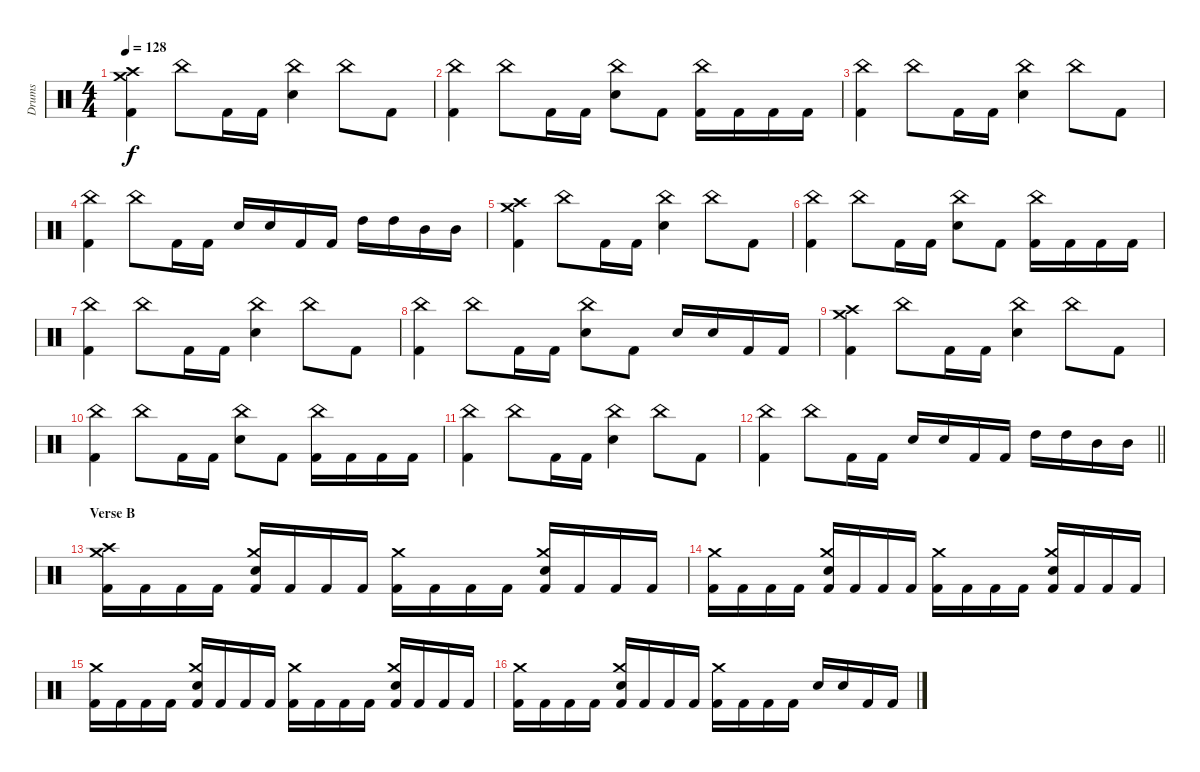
\track ("Drums" "Drums") {instrument percussion}
\staff {score}
\articulation defaults
\ts (4 4)
\tempo 128
\clef neutral
\ks c
("Kick (hit) 2" "Crash high (hit)" "Crash medium (hit)").4{dy f} "China (hit)".8 "Kick (hit) 2".16 "Kick (hit) 2".16 ("Snare (hit) 2" "China (hit)").4 "China (hit)".8 "Kick (hit) 2".8 |
("Kick (hit) 2" "China (hit)").4 "China (hit)".8 "Kick (hit) 2".16 "Kick (hit) 2".16 ("Snare (hit) 2" "China (hit)").8 "Kick (hit) 2".8 ("Kick (hit) 2" "China (hit)").16 "Kick (hit) 2".16 "Kick (hit) 2".16 "Kick (hit) 2".16 |
("Kick (hit) 2" "China (hit)").4 "China (hit)".8 "Kick (hit) 2".16 "Kick (hit) 2".16 ("Snare (hit) 2" "China (hit)").4 "China (hit)".8 "Kick (hit) 2".8 |
("Kick (hit) 2" "China (hit)").4 "China (hit)".8 "Kick (hit) 2".16 "Kick (hit) 2".16 "Snare (hit) 2".16 "Snare (hit) 2".16 "Kick (hit) 2".16 "Kick (hit) 2".16 "High Tom (hit)".16 "High Tom (hit)".16 "Mid Tom (hit)".16 "Mid Tom (hit)".16 |
("Kick (hit) 2" "Crash high (hit)" "Crash medium (hit)").4 "China (hit)".8 "Kick (hit) 2".16 "Kick (hit) 2".16 ("Snare (hit) 2" "China (hit)").4 "China (hit)".8 "Kick (hit) 2".8 |
("Kick (hit) 2" "China (hit)").4 "China (hit)".8 "Kick (hit) 2".16 "Kick (hit) 2".16 ("Snare (hit) 2" "China (hit)").8 "Kick (hit) 2".8 ("Kick (hit) 2" "China (hit)").16 "Kick (hit) 2".16 "Kick (hit) 2".16 "Kick (hit) 2".16 |
("Kick (hit) 2" "China (hit)").4 "China (hit)".8 "Kick (hit) 2".16 "Kick (hit) 2".16 ("Snare (hit) 2" "China (hit)").4 "China (hit)".8 "Kick (hit) 2".8 |
("Kick (hit) 2" "China (hit)").4 "China (hit)".8 "Kick (hit) 2".16 "Kick (hit) 2".16 ("Snare (hit) 2" "China (hit)").8 "Kick (hit) 2".8 "Snare (hit) 2".16 "Snare (hit) 2".16 "Kick (hit) 2".16 "Kick (hit) 2".16 |
("Kick (hit) 2" "Crash high (hit)" "Crash medium (hit)").4 "China (hit)".8 "Kick (hit) 2".16 "Kick (hit) 2".16 ("Snare (hit) 2" "China (hit)").4 "China (hit)".8 "Kick (hit) 2".8 |
("Kick (hit) 2" "China (hit)").4 "China (hit)".8 "Kick (hit) 2".16 "Kick (hit) 2".16 ("Snare (hit) 2" "China (hit)").8 "Kick (hit) 2".8 ("Kick (hit) 2" "China (hit)").16 "Kick (hit) 2".16 "Kick (hit) 2".16 "Kick (hit) 2".16 |
("Kick (hit) 2" "China (hit)").4 "China (hit)".8 "Kick (hit) 2".16 "Kick (hit) 2".16 ("Snare (hit) 2" "China (hit)").4 "China (hit)".8 "Kick (hit) 2".8 |
\barLineRight lightlight
("Kick (hit) 2" "China (hit)").4 "China (hit)".8 "Kick (hit) 2".16 "Kick (hit) 2".16 "Snare (hit) 2".16 "Snare (hit) 2".16 "Kick (hit) 2".16 "Kick (hit) 2".16 "High Tom (hit)".16 "High Tom (hit)".16 "Mid Tom (hit)".16 "Mid Tom (hit)".16 |
\section ("" "Verse B")
("Kick (hit) 2" "Crash high (hit)" "Crash medium (hit)").16 "Kick (hit) 2".16 "Kick (hit) 2".16 "Kick (hit) 2".16 ("Kick (hit) 2" "Snare (hit) 2" "Crash medium (hit)").16 "Kick (hit) 2".16 "Kick (hit) 2".16 "Kick (hit) 2".16 ("Kick (hit) 2" "Crash medium (hit)").16 "Kick (hit) 2".16 "Kick (hit) 2".16 "Kick (hit) 2".16 ("Kick (hit) 2" "Snare (hit) 2" "Crash medium (hit)").16 "Kick (hit) 2".16 "Kick (hit) 2".16 "Kick (hit) 2".16 |
("Kick (hit) 2" "Crash medium (hit)").16 "Kick (hit) 2".16 "Kick (hit) 2".16 "Kick (hit) 2".16 ("Kick (hit) 2" "Snare (hit) 2" "Crash medium (hit)").16 "Kick (hit) 2".16 "Kick (hit) 2".16 "Kick (hit) 2".16 ("Kick (hit) 2" "Crash medium (hit)").16 "Kick (hit) 2".16 "Kick (hit) 2".16 "Kick (hit) 2".16 ("Kick (hit) 2" "Snare (hit) 2" "Crash medium (hit)").16 "Kick (hit) 2".16 "Kick (hit) 2".16 "Kick (hit) 2".16 |
("Kick (hit) 2" "Crash medium (hit)").16 "Kick (hit) 2".16 "Kick (hit) 2".16 "Kick (hit) 2".16 ("Kick (hit) 2" "Snare (hit) 2" "Crash medium (hit)").16 "Kick (hit) 2".16 "Kick (hit) 2".16 "Kick (hit) 2".16 ("Kick (hit) 2" "Crash medium (hit)").16 "Kick (hit) 2".16 "Kick (hit) 2".16 "Kick (hit) 2".16 ("Kick (hit) 2" "Snare (hit) 2" "Crash medium (hit)").16 "Kick (hit) 2".16 "Kick (hit) 2".16 "Kick (hit) 2".16 |
("Kick (hit) 2" "Crash medium (hit)").16 "Kick (hit) 2".16 "Kick (hit) 2".16 "Kick (hit) 2".16 ("Kick (hit) 2" "Snare (hit) 2" "Crash medium (hit)").16 "Kick (hit) 2".16 "Kick (hit) 2".16 "Kick (hit) 2".16 ("Kick (hit) 2" "Crash medium (hit)").16 "Kick (hit) 2".16 "Kick (hit) 2".16 "Kick (hit) 2".16 "Snare (hit) 2".16 "Snare (hit) 2".16 "Kick (hit) 2".16 "Kick (hit) 2".16
